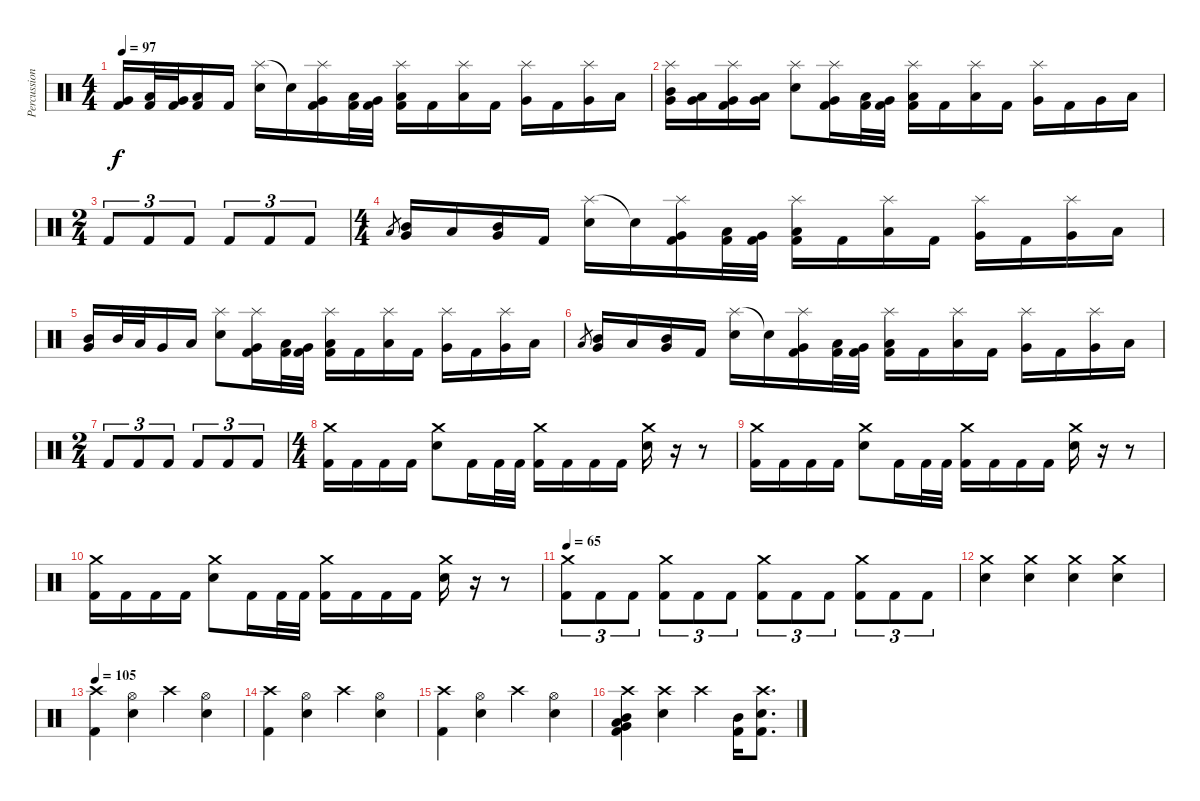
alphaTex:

\track ("Percussion" "Percussion") {instrument percussion}
\staff {score}
\articulation defaults
\ts (4 4)
\tempo 97
\clef neutral
\ks c
("Very Low Tom (hit)" "Kick (hit) 2").16{dy f} ("Low Tom (hit)" "Kick (hit) 2").32 ("Very Low Tom (hit)" "Kick (hit) 2").32 ("Low Floor Tom (hit)" "Kick (hit) 2").16 "Kick (hit) 2".16 ("Splash (hit)" "Electric Snare (hit)").16 "Electric Snare (hit)"{t}.16 ("Splash (hit)" "Very Low Tom (hit)" "Kick (hit) 2").16 ("Low Tom (hit)" "Kick (hit) 2").32 ("Very Low Tom (hit)" "Kick (hit) 2").32 ("Splash (hit)" "Low Floor Tom (hit)" "Kick (hit) 2").16 "Kick (hit) 2".16 ("Splash (hit)" "Low Tom (hit)").16 "Kick (hit) 2".16 ("Splash (hit)" "Very Low Tom (hit)").16 "Kick (hit) 2".16 ("Splash (hit)" "Very Low Tom (hit)").16 "Low Tom (hit)".16 |
("Splash (hit)" "Mid Tom (hit)" "Very Low Tom (hit)").16 ("Low Tom (hit)" "Very Low Tom (hit)").16 ("Splash (hit)" "Very Low Tom (hit)" "Kick (hit) 2").16 ("Low Tom (hit)" "Very Low Tom (hit)").16 ("Splash (hit)" "Electric Snare (hit)").8 ("Splash (hit)" "Very Low Tom (hit)" "Kick (hit) 2").16 ("Low Tom (hit)" "Kick (hit) 2").32 ("Very Low Tom (hit)" "Kick (hit) 2").32 ("Splash (hit)" "Low Floor Tom (hit)" "Kick (hit) 2").16 "Kick (hit) 2".16 ("Splash (hit)" "Low Tom (hit)").16 "Kick (hit) 2".16 ("Splash (hit)" "Very Low Tom (hit)").16 "Kick (hit) 2".16 "Very Low Tom (hit)".16 "Low Tom (hit)".16 |
\ts (2 4)
"Kick (hit) 2".8{tu (3 2)} "Kick (hit) 2".8{tu (3 2)} "Kick (hit) 2".8{tu (3 2)} "Kick (hit) 2".8{tu (3 2)} "Kick (hit) 2".8{tu (3 2)} "Kick (hit) 2".8{tu (3 2)} |
\ts (4 4)
"Low Tom (hit)".8{gr} ("Mid Tom (hit)" "Very Low Tom (hit)").16 "Low Tom (hit)".16 ("Mid Tom (hit)" "Very Low Tom (hit)").16 "Kick (hit) 2".16 ("Splash (hit)" "Electric Snare (hit)").16 "Electric Snare (hit)"{t}.16 ("Splash (hit)" "Very Low Tom (hit)" "Kick (hit) 2").16 ("Low Tom (hit)" "Kick (hit) 2").32 ("Very Low Tom (hit)" "Kick (hit) 2").32 ("Splash (hit)" "Low Floor Tom (hit)" "Kick (hit) 2").16 "Kick (hit) 2".16 ("Splash (hit)" "Low Tom (hit)").16 "Kick (hit) 2".16 ("Splash (hit)" "Very Low Tom (hit)").16 "Kick (hit) 2".16 ("Splash (hit)" "Very Low Tom (hit)").16 "Low Tom (hit)".16 |
("Mid Tom (hit)" "Very Low Tom (hit)").16 "Mid Tom (hit)".32 "Low Tom (hit)".32 "Very Low Tom (hit)".16 "Low Floor Tom (hit)".16 ("Splash (hit)" "Electric Snare (hit)").8 ("Splash (hit)" "Very Low Tom (hit)" "Kick (hit) 2").16 ("Low Tom (hit)" "Kick (hit) 2").32 ("Very Low Tom (hit)" "Kick (hit) 2").32 ("Splash (hit)" "Low Floor Tom (hit)" "Kick (hit) 2").16 "Kick (hit) 2".16 ("Splash (hit)" "Low Tom (hit)").16 "Kick (hit) 2".16 ("Splash (hit)" "Very Low Tom (hit)").16 "Kick (hit) 2".16 ("Splash (hit)" "Very Low Tom (hit)").16 "Low Tom (hit)".16 |
"Low Tom (hit)".8{gr} ("Mid Tom (hit)" "Very Low Tom (hit)").16 "Low Tom (hit)".16 ("Mid Tom (hit)" "Very Low Tom (hit)").16 "Kick (hit) 2".16 ("Splash (hit)" "Electric Snare (hit)").16 "Electric Snare (hit)"{t}.16 ("Splash (hit)" "Very Low Tom (hit)" "Kick (hit) 2").16 ("Low Tom (hit)" "Kick (hit) 2").32 ("Very Low Tom (hit)" "Kick (hit) 2").32 ("Splash (hit)" "Low Floor Tom (hit)" "Kick (hit) 2").16 "Kick (hit) 2".16 ("Splash (hit)" "Low Tom (hit)").16 "Kick (hit) 2".16 ("Splash (hit)" "Very Low Tom (hit)").16 "Kick (hit) 2".16 ("Splash (hit)" "Very Low Tom (hit)").16 "Low Tom (hit)".16 |
\ts (2 4)
"Kick (hit) 2".8{tu (3 2)} "Kick (hit) 2".8{tu (3 2)} "Kick (hit) 2".8{tu (3 2)} "Kick (hit) 2".8{tu (3 2)} "Kick (hit) 2".8{tu (3 2)} "Kick (hit) 2".8{tu (3 2)} |
\ts (4 4)
("Crash medium (hit)" "Kick (hit) 2").16 "Kick (hit) 2".16 "Kick (hit) 2".16 "Kick (hit) 2".16 ("Crash medium (hit)" "Electric Snare (hit)").8 "Kick (hit) 2".16 "Kick (hit) 2".32 "Kick (hit) 2".32 ("Crash medium (hit)" "Kick (hit) 2").16 "Kick (hit) 2".16 "Kick (hit) 2".16 "Kick (hit) 2".16 ("Crash medium (hit)" "Electric Snare (hit)").16 r.16 r.8 |
("Crash medium (hit)" "Kick (hit) 2").16 "Kick (hit) 2".16 "Kick (hit) 2".16 "Kick (hit) 2".16 ("Crash medium (hit)" "Electric Snare (hit)").8 "Kick (hit) 2".16 "Kick (hit) 2".32 "Kick (hit) 2".32 ("Crash medium (hit)" "Kick (hit) 2").16 "Kick (hit) 2".16 "Kick (hit) 2".16 "Kick (hit) 2".16 ("Crash medium (hit)" "Electric Snare (hit)").16 r.16 r.8 |
("Crash medium (hit)" "Kick (hit) 2").16 "Kick (hit) 2".16 "Kick (hit) 2".16 "Kick (hit) 2".16 ("Crash medium (hit)" "Electric Snare (hit)").8 "Kick (hit) 2".16 "Kick (hit) 2".32 "Kick (hit) 2".32 ("Crash medium (hit)" "Kick (hit) 2").16 "Kick (hit) 2".16 "Kick (hit) 2".16 "Kick (hit) 2".16 ("Crash medium (hit)" "Electric Snare (hit)").16 r.16 r.8 |
\tempo 65
("Crash medium (hit)" "Kick (hit) 2").8{tu (3 2)} "Kick (hit) 2".8{tu (3 2)} "Kick (hit) 2".8{tu (3 2)} ("Crash medium (hit)" "Kick (hit) 2").8{tu (3 2)} "Kick (hit) 2".8{tu (3 2)} "Kick (hit) 2".8{tu (3 2)} ("Crash medium (hit)" "Kick (hit) 2").8{tu (3 2)} "Kick (hit) 2".8{tu (3 2)} "Kick (hit) 2".8{tu (3 2)} ("Crash medium (hit)" "Kick (hit) 2").8{tu (3 2)} "Kick (hit) 2".8{tu (3 2)} "Kick (hit) 2".8{tu (3 2)} |
("Crash medium (hit)" "Electric Snare (hit)").4 ("Crash medium (hit)" "Electric Snare (hit)").4 ("Crash medium (hit)" "Electric Snare (hit)").4 ("Crash medium (hit)" "Electric Snare (hit)").4 |
\tempo 105
("Crash high (hit)" "Kick (hit) 2").4 ("Hi-Hat (open)" "Electric Snare (hit)").4 "Crash high (hit)".4 ("Hi-Hat (open)" "Electric Snare (hit)").4 |
("Crash high (hit)" "Kick (hit) 2").4 ("Hi-Hat (open)" "Electric Snare (hit)").4 "Crash high (hit)".4 ("Hi-Hat (open)" "Electric Snare (hit)").4 |
("Crash high (hit)" "Kick (hit) 2").4 ("Hi-Hat (open)" "Electric Snare (hit)").4 "Crash high (hit)".4 ("Hi-Hat (open)" "Electric Snare (hit)").4 |
("Crash high (hit)" "Mid Tom (hit)" "Low Tom (hit)" "Very Low Tom (hit)" "Kick (hit) 2").4 ("Crash high (hit)" "Electric Snare (hit)").4 "Crash high (hit)".4 ("Mid Tom (hit)" "Kick (hit) 2").16 ("Crash high (hit)" "Electric Snare (hit)" "Kick (hit) 2").8{d}
